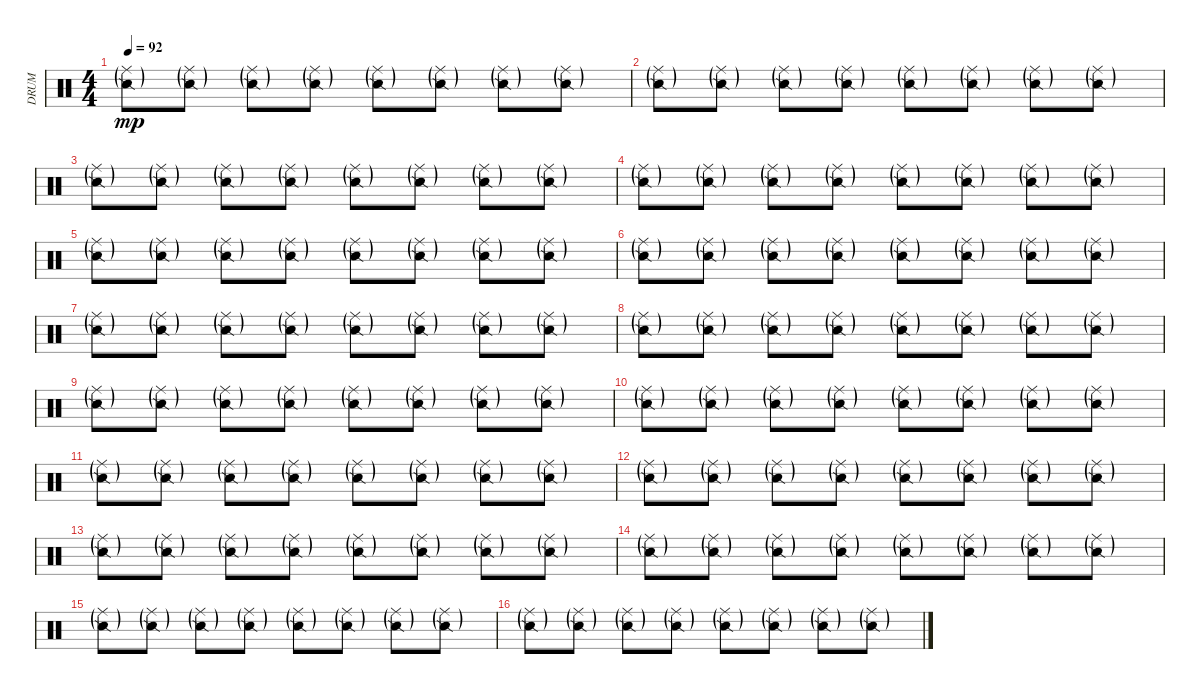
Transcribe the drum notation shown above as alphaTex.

\track ("DRUM" "DRUM") {instrument percussion}
\staff {score}
\articulation defaults
\ts (4 4)
\tempo 92
\clef neutral
\ks c
("Ride (middle)"{g} "Snare (side stick) 2"{g}).8{dy mp volume 10} ("Ride (middle)"{g} "Snare (side stick) 2"{g}).8 ("Ride (middle)"{g} "Snare (side stick) 2"{g}).8 ("Ride (middle)"{g} "Snare (side stick) 2"{g}).8 ("Ride (middle)"{g} "Snare (side stick) 2"{g}).8 ("Ride (middle)"{g} "Snare (side stick) 2"{g}).8 ("Ride (middle)"{g} "Snare (side stick) 2"{g}).8 ("Ride (middle)"{g} "Snare (side stick) 2"{g}).8 |
("Ride (middle)"{g} "Snare (side stick) 2"{g}).8{volume 10} ("Ride (middle)"{g} "Snare (side stick) 2"{g}).8 ("Ride (middle)"{g} "Snare (side stick) 2"{g}).8 ("Ride (middle)"{g} "Snare (side stick) 2"{g}).8 ("Ride (middle)"{g} "Snare (side stick) 2"{g}).8 ("Ride (middle)"{g} "Snare (side stick) 2"{g}).8 ("Ride (middle)"{g} "Snare (side stick) 2"{g}).8 ("Ride (middle)"{g} "Snare (side stick) 2"{g}).8 |
("Ride (middle)"{g} "Snare (side stick) 2"{g}).8{volume 10} ("Ride (middle)"{g} "Snare (side stick) 2"{g}).8 ("Ride (middle)"{g} "Snare (side stick) 2"{g}).8 ("Ride (middle)"{g} "Snare (side stick) 2"{g}).8 ("Ride (middle)"{g} "Snare (side stick) 2"{g}).8 ("Ride (middle)"{g} "Snare (side stick) 2"{g}).8 ("Ride (middle)"{g} "Snare (side stick) 2"{g}).8 ("Ride (middle)"{g} "Snare (side stick) 2"{g}).8 |
("Ride (middle)"{g} "Snare (side stick) 2"{g}).8{volume 10} ("Ride (middle)"{g} "Snare (side stick) 2"{g}).8 ("Ride (middle)"{g} "Snare (side stick) 2"{g}).8 ("Ride (middle)"{g} "Snare (side stick) 2"{g}).8 ("Ride (middle)"{g} "Snare (side stick) 2"{g}).8 ("Ride (middle)"{g} "Snare (side stick) 2"{g}).8 ("Ride (middle)"{g} "Snare (side stick) 2"{g}).8 ("Ride (middle)"{g} "Snare (side stick) 2"{g}).8 |
("Ride (middle)"{g} "Snare (side stick) 2"{g}).8{volume 10} ("Ride (middle)"{g} "Snare (side stick) 2"{g}).8 ("Ride (middle)"{g} "Snare (side stick) 2"{g}).8 ("Ride (middle)"{g} "Snare (side stick) 2"{g}).8 ("Ride (middle)"{g} "Snare (side stick) 2"{g}).8 ("Ride (middle)"{g} "Snare (side stick) 2"{g}).8 ("Ride (middle)"{g} "Snare (side stick) 2"{g}).8 ("Ride (middle)"{g} "Snare (side stick) 2"{g}).8 |
("Ride (middle)"{g} "Snare (side stick) 2"{g}).8{volume 10} ("Ride (middle)"{g} "Snare (side stick) 2"{g}).8 ("Ride (middle)"{g} "Snare (side stick) 2"{g}).8 ("Ride (middle)"{g} "Snare (side stick) 2"{g}).8 ("Ride (middle)"{g} "Snare (side stick) 2"{g}).8 ("Ride (middle)"{g} "Snare (side stick) 2"{g}).8 ("Ride (middle)"{g} "Snare (side stick) 2"{g}).8 ("Ride (middle)"{g} "Snare (side stick) 2"{g}).8 |
("Ride (middle)"{g} "Snare (side stick) 2"{g}).8{volume 10} ("Ride (middle)"{g} "Snare (side stick) 2"{g}).8 ("Ride (middle)"{g} "Snare (side stick) 2"{g}).8 ("Ride (middle)"{g} "Snare (side stick) 2"{g}).8 ("Ride (middle)"{g} "Snare (side stick) 2"{g}).8 ("Ride (middle)"{g} "Snare (side stick) 2"{g}).8 ("Ride (middle)"{g} "Snare (side stick) 2"{g}).8 ("Ride (middle)"{g} "Snare (side stick) 2"{g}).8 |
("Ride (middle)"{g} "Snare (side stick) 2"{g}).8{volume 10} ("Ride (middle)"{g} "Snare (side stick) 2"{g}).8 ("Ride (middle)"{g} "Snare (side stick) 2"{g}).8 ("Ride (middle)"{g} "Snare (side stick) 2"{g}).8 ("Ride (middle)"{g} "Snare (side stick) 2"{g}).8 ("Ride (middle)"{g} "Snare (side stick) 2"{g}).8 ("Ride (middle)"{g} "Snare (side stick) 2"{g}).8 ("Ride (middle)"{g} "Snare (side stick) 2"{g}).8 |
("Ride (middle)"{g} "Snare (side stick) 2"{g}).8{volume 10} ("Ride (middle)"{g} "Snare (side stick) 2"{g}).8 ("Ride (middle)"{g} "Snare (side stick) 2"{g}).8 ("Ride (middle)"{g} "Snare (side stick) 2"{g}).8 ("Ride (middle)"{g} "Snare (side stick) 2"{g}).8 ("Ride (middle)"{g} "Snare (side stick) 2"{g}).8 ("Ride (middle)"{g} "Snare (side stick) 2"{g}).8 ("Ride (middle)"{g} "Snare (side stick) 2"{g}).8 |
("Ride (middle)"{g} "Snare (side stick) 2"{g}).8{volume 10} ("Ride (middle)"{g} "Snare (side stick) 2"{g}).8 ("Ride (middle)"{g} "Snare (side stick) 2"{g}).8 ("Ride (middle)"{g} "Snare (side stick) 2"{g}).8 ("Ride (middle)"{g} "Snare (side stick) 2"{g}).8 ("Ride (middle)"{g} "Snare (side stick) 2"{g}).8 ("Ride (middle)"{g} "Snare (side stick) 2"{g}).8 ("Ride (middle)"{g} "Snare (side stick) 2"{g}).8 |
("Ride (middle)"{g} "Snare (side stick) 2"{g}).8{volume 10} ("Ride (middle)"{g} "Snare (side stick) 2"{g}).8 ("Ride (middle)"{g} "Snare (side stick) 2"{g}).8 ("Ride (middle)"{g} "Snare (side stick) 2"{g}).8 ("Ride (middle)"{g} "Snare (side stick) 2"{g}).8 ("Ride (middle)"{g} "Snare (side stick) 2"{g}).8 ("Ride (middle)"{g} "Snare (side stick) 2"{g}).8 ("Ride (middle)"{g} "Snare (side stick) 2"{g}).8 |
("Ride (middle)"{g} "Snare (side stick) 2"{g}).8{volume 10} ("Ride (middle)"{g} "Snare (side stick) 2"{g}).8 ("Ride (middle)"{g} "Snare (side stick) 2"{g}).8 ("Ride (middle)"{g} "Snare (side stick) 2"{g}).8 ("Ride (middle)"{g} "Snare (side stick) 2"{g}).8 ("Ride (middle)"{g} "Snare (side stick) 2"{g}).8 ("Ride (middle)"{g} "Snare (side stick) 2"{g}).8 ("Ride (middle)"{g} "Snare (side stick) 2"{g}).8 |
("Ride (middle)"{g} "Snare (side stick) 2"{g}).8{volume 10} ("Ride (middle)"{g} "Snare (side stick) 2"{g}).8 ("Ride (middle)"{g} "Snare (side stick) 2"{g}).8 ("Ride (middle)"{g} "Snare (side stick) 2"{g}).8 ("Ride (middle)"{g} "Snare (side stick) 2"{g}).8 ("Ride (middle)"{g} "Snare (side stick) 2"{g}).8 ("Ride (middle)"{g} "Snare (side stick) 2"{g}).8 ("Ride (middle)"{g} "Snare (side stick) 2"{g}).8 |
("Ride (middle)"{g} "Snare (side stick) 2"{g}).8{volume 10} ("Ride (middle)"{g} "Snare (side stick) 2"{g}).8 ("Ride (middle)"{g} "Snare (side stick) 2"{g}).8 ("Ride (middle)"{g} "Snare (side stick) 2"{g}).8 ("Ride (middle)"{g} "Snare (side stick) 2"{g}).8 ("Ride (middle)"{g} "Snare (side stick) 2"{g}).8 ("Ride (middle)"{g} "Snare (side stick) 2"{g}).8 ("Ride (middle)"{g} "Snare (side stick) 2"{g}).8 |
("Ride (middle)"{g} "Snare (side stick) 2"{g}).8{volume 10} ("Ride (middle)"{g} "Snare (side stick) 2"{g}).8 ("Ride (middle)"{g} "Snare (side stick) 2"{g}).8 ("Ride (middle)"{g} "Snare (side stick) 2"{g}).8 ("Ride (middle)"{g} "Snare (side stick) 2"{g}).8 ("Ride (middle)"{g} "Snare (side stick) 2"{g}).8 ("Ride (middle)"{g} "Snare (side stick) 2"{g}).8 ("Ride (middle)"{g} "Snare (side stick) 2"{g}).8 |
("Ride (middle)"{g} "Snare (side stick) 2"{g}).8{volume 10} ("Ride (middle)"{g} "Snare (side stick) 2"{g}).8 ("Ride (middle)"{g} "Snare (side stick) 2"{g}).8 ("Ride (middle)"{g} "Snare (side stick) 2"{g}).8 ("Ride (middle)"{g} "Snare (side stick) 2"{g}).8 ("Ride (middle)"{g} "Snare (side stick) 2"{g}).8 ("Ride (middle)"{g} "Snare (side stick) 2"{g}).8 ("Ride (middle)"{g} "Snare (side stick) 2"{g}).8
